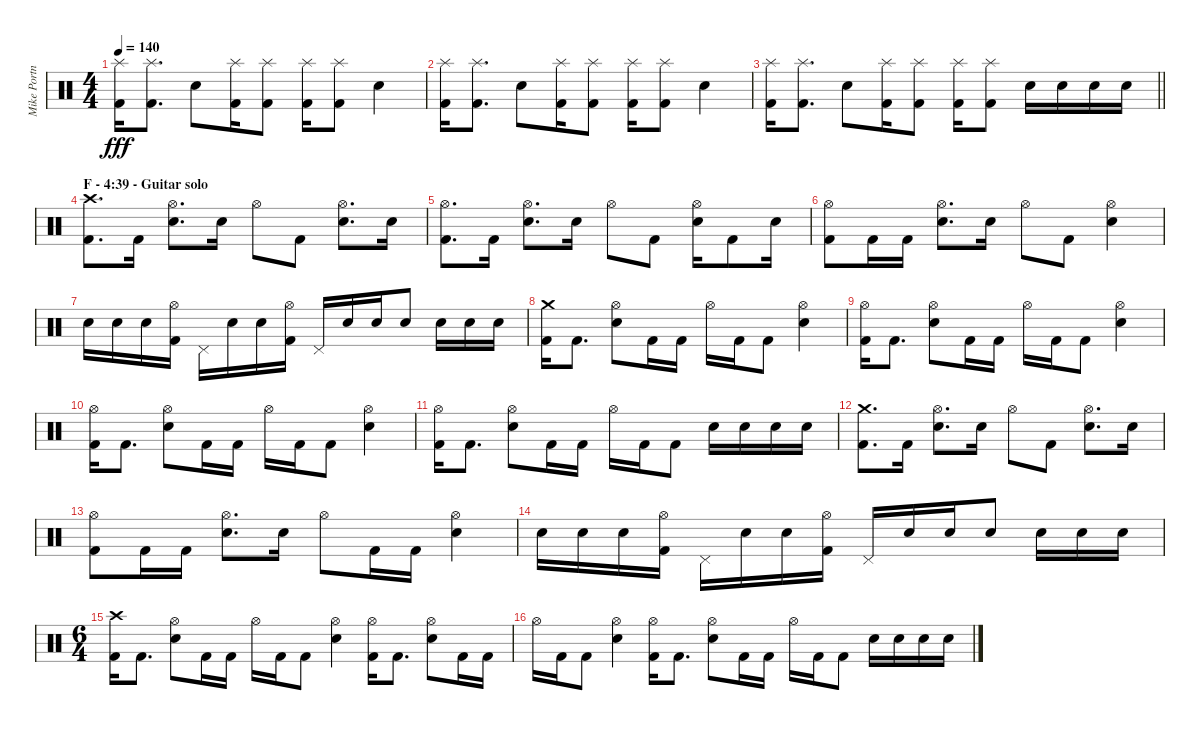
\track ("Mike Portnoy" "Mike Portn") {instrument percussion}
\staff {score}
\articulation defaults
\ts (4 4)
\tempo 140
\clef neutral
\ks c
("Splash (hit)" "Kick (hit) 2").16{dy fff} ("Splash (hit)" "Kick (hit) 2").8{d} "Snare (hit) 2".8 ("Splash (hit)" "Kick (hit) 2").16 ("Splash (hit)" "Kick (hit) 2").8 ("Splash (hit)" "Kick (hit) 2").16 ("Splash (hit)" "Kick (hit) 2").8 "Snare (hit) 2".4 |
("Splash (hit)" "Kick (hit) 2").16 ("Splash (hit)" "Kick (hit) 2").8{d} "Snare (hit) 2".8 ("Splash (hit)" "Kick (hit) 2").16 ("Splash (hit)" "Kick (hit) 2").8 ("Splash (hit)" "Kick (hit) 2").16 ("Splash (hit)" "Kick (hit) 2").8 "Snare (hit) 2".4 |
\barLineRight lightlight
("Splash (hit)" "Kick (hit) 2").16 ("Splash (hit)" "Kick (hit) 2").8{d} "Snare (hit) 2".8 ("Splash (hit)" "Kick (hit) 2").16 ("Splash (hit)" "Kick (hit) 2").8 ("Splash (hit)" "Kick (hit) 2").16 ("Splash (hit)" "Kick (hit) 2").8 "Snare (hit) 2".16 "Snare (hit) 2".16 "Snare (hit) 2".16 "Snare (hit) 2".16 |
\section ("" "F - 4:39 - Guitar solo")
("Crash high (hit)" "Kick (hit) 2").8{d} "Kick (hit) 2".16 ("Hi-Hat (open)" "Snare (hit) 2").8{d} "Snare (hit) 2".16 "Hi-Hat (open)".8 "Kick (hit) 2".8 ("Hi-Hat (open)" "Snare (hit) 2").8{d} "Snare (hit) 2".16 |
("Hi-Hat (open)" "Kick (hit) 2").8{d} "Kick (hit) 2".16 ("Hi-Hat (open)" "Snare (hit) 2").8{d} "Snare (hit) 2".16 "Hi-Hat (open)".8 "Kick (hit) 2".8 ("Hi-Hat (open)" "Snare (hit) 2").16 "Kick (hit) 2".8 "Snare (hit) 2".16 |
("Hi-Hat (open)" "Kick (hit) 2").8 "Kick (hit) 2".16 "Kick (hit) 2".16 ("Hi-Hat (open)" "Snare (hit) 2").8{d} "Snare (hit) 2".16 "Hi-Hat (open)".8 "Kick (hit) 2".8 ("Hi-Hat (open)" "Snare (hit) 2").4 |
"Snare (hit) 2".16 "Snare (hit) 2".16 "Snare (hit) 2".16 ("Hi-Hat (open)" "Kick (hit) 2").16 "Pedal Hi-Hat (hit)".16 "Snare (hit) 2".16 "Snare (hit) 2".16 ("Hi-Hat (open)" "Kick (hit) 2").16 "Pedal Hi-Hat (hit)".16 "Snare (hit) 2".16 "Snare (hit) 2".16 "Snare (hit) 2".8 "Snare (hit) 2".16 "Snare (hit) 2".16 "Snare (hit) 2".16 |
("Crash medium (hit)" "Kick (hit) 2").16 "Kick (hit) 2".8{d} ("Hi-Hat (open)" "Snare (hit) 2").8 "Kick (hit) 2".16 "Kick (hit) 2".16 "Hi-Hat (open)".16 "Kick (hit) 2".16 "Kick (hit) 2".8 ("Hi-Hat (open)" "Snare (hit) 2").4 |
("Hi-Hat (open)" "Kick (hit) 2").16 "Kick (hit) 2".8{d} ("Hi-Hat (open)" "Snare (hit) 2").8 "Kick (hit) 2".16 "Kick (hit) 2".16 "Hi-Hat (open)".16 "Kick (hit) 2".16 "Kick (hit) 2".8 ("Hi-Hat (open)" "Snare (hit) 2").4 |
("Hi-Hat (open)" "Kick (hit) 2").16 "Kick (hit) 2".8{d} ("Hi-Hat (open)" "Snare (hit) 2").8 "Kick (hit) 2".16 "Kick (hit) 2".16 "Hi-Hat (open)".16 "Kick (hit) 2".16 "Kick (hit) 2".8 ("Hi-Hat (open)" "Snare (hit) 2").4 |
("Hi-Hat (open)" "Kick (hit) 2").16 "Kick (hit) 2".8{d} ("Hi-Hat (open)" "Snare (hit) 2").8 "Kick (hit) 2".16 "Kick (hit) 2".16 "Hi-Hat (open)".16 "Kick (hit) 2".16 "Kick (hit) 2".8 "Snare (hit) 2".16 "Snare (hit) 2".16 "Snare (hit) 2".16 "Snare (hit) 2".16 |
("Crash medium (hit)" "Kick (hit) 2").8{d} "Kick (hit) 2".16 ("Hi-Hat (open)" "Snare (hit) 2").8{d} "Snare (hit) 2".16 "Hi-Hat (open)".8 "Kick (hit) 2".8 ("Hi-Hat (open)" "Snare (hit) 2").8{d} "Snare (hit) 2".16 |
("Hi-Hat (open)" "Kick (hit) 2").8 "Kick (hit) 2".16 "Kick (hit) 2".16 ("Hi-Hat (open)" "Snare (hit) 2").8{d} "Snare (hit) 2".16 "Hi-Hat (open)".8 "Kick (hit) 2".16 "Kick (hit) 2".16 ("Hi-Hat (open)" "Snare (hit) 2").4 |
"Snare (hit) 2".16 "Snare (hit) 2".16 "Snare (hit) 2".16 ("Hi-Hat (open)" "Kick (hit) 2").16 "Pedal Hi-Hat (hit)".16 "Snare (hit) 2".16 "Snare (hit) 2".16 ("Hi-Hat (open)" "Kick (hit) 2").16 "Pedal Hi-Hat (hit)".16 "Snare (hit) 2".16 "Snare (hit) 2".16 "Snare (hit) 2".8 "Snare (hit) 2".16 "Snare (hit) 2".16 "Snare (hit) 2".16 |
\ts (6 4)
("Crash high (hit)" "Kick (hit) 2").16 "Kick (hit) 2".8{d} ("Hi-Hat (open)" "Snare (hit) 2").8 "Kick (hit) 2".16 "Kick (hit) 2".16 "Hi-Hat (open)".16 "Kick (hit) 2".16 "Kick (hit) 2".8 ("Hi-Hat (open)" "Snare (hit) 2").4 ("Hi-Hat (open)" "Kick (hit) 2").16 "Kick (hit) 2".8{d} ("Hi-Hat (open)" "Snare (hit) 2").8 "Kick (hit) 2".16 "Kick (hit) 2".16 |
"Hi-Hat (open)".16 "Kick (hit) 2".16 "Kick (hit) 2".8 ("Hi-Hat (open)" "Snare (hit) 2").4 ("Hi-Hat (open)" "Kick (hit) 2").16 "Kick (hit) 2".8{d} ("Hi-Hat (open)" "Snare (hit) 2").8 "Kick (hit) 2".16 "Kick (hit) 2".16 "Hi-Hat (open)".16 "Kick (hit) 2".16 "Kick (hit) 2".8 "Snare (hit) 2".16 "Snare (hit) 2".16 "Snare (hit) 2".16 "Snare (hit) 2".16
